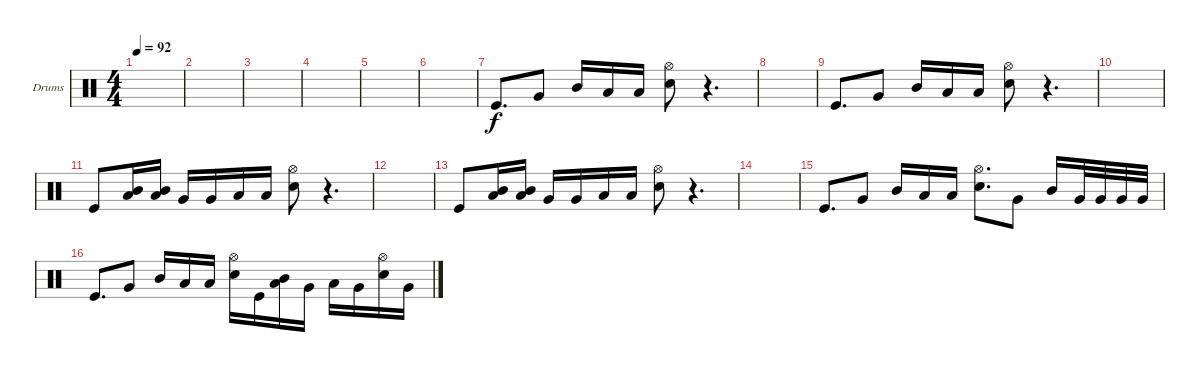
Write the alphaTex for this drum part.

\defaultSystemsLayout 4
\bracketExtendMode groupsimilarinstruments
\firstSystemTrackNameOrientation horizontal
\otherSystemsTrackNameOrientation horizontal
\track ("Drumkit" "Drums") {instrument percussion}
\staff {score}
\articulation defaults
\ts (4 4)
\tempo 92
\clef neutral
\ks c
|
|
|
|
|
|
"Kick (hit)".8{d} "Very Low Tom (hit)".8 "Mid Tom (hit)".16 "Low Tom (hit)".16 "Low Tom (hit)".16 ("Snare (hit) 2" "Hi-Hat (open)").8 r.4{d} |
|
"Kick (hit)".8{d} "Very Low Tom (hit)".8 "Mid Tom (hit)".16 "Low Tom (hit)".16 "Low Tom (hit)".16 ("Snare (hit) 2" "Hi-Hat (open)").8 r.4{d} |
|
"Kick (hit)".8 ("Mid Tom (hit)" "Low Tom (hit)").16 ("Mid Tom (hit)" "Low Tom (hit)").16 "Very Low Tom (hit)".16 "Very Low Tom (hit)".16 "Low Tom (hit)".16 "Low Tom (hit)".16 ("Snare (hit) 2" "Hi-Hat (open)").8 r.4{d} |
|
"Kick (hit)".8 ("Mid Tom (hit)" "Low Tom (hit)").16 ("Mid Tom (hit)" "Low Tom (hit)").16 "Very Low Tom (hit)".16 "Very Low Tom (hit)".16 "Low Tom (hit)".16 "Low Tom (hit)".16 ("Snare (hit) 2" "Hi-Hat (open)").8 r.4{d} |
|
"Kick (hit)".8{d} "Very Low Tom (hit)".8 "Mid Tom (hit)".16 "Low Tom (hit)".16 "Low Tom (hit)".16 ("Snare (hit) 2" "Hi-Hat (open)").8{d} "Very Low Tom (hit)".8 "Mid Tom (hit)".16 "Very Low Tom (hit)".32 "Very Low Tom (hit)".32 "Very Low Tom (hit)".32 "Very Low Tom (hit)".32 |
"Kick (hit)".8{d} "Very Low Tom (hit)".8 "Mid Tom (hit)".16 "Low Tom (hit)".16 "Low Tom (hit)".16 ("Snare (hit) 2" "Hi-Hat (open)").16 "Kick (hit)".16 ("Mid Tom (hit)" "Low Tom (hit)").16 "Very Low Tom (hit)".16 "Low Tom (hit)".16 "Very Low Tom (hit)".16 ("Snare (hit) 2" "Hi-Hat (open)").16 "Very Low Tom (hit)".16
